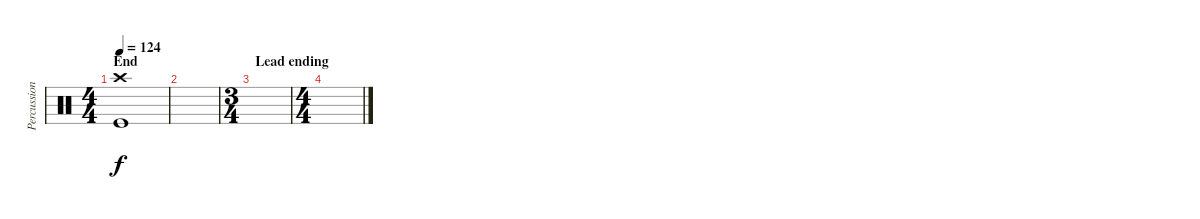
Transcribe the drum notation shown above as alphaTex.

\track ("Percussion" "Percussion") {instrument percussion}
\staff {score}
\articulation defaults
\ts (4 4)
\section ("" "End")
\tempo 124
\clef neutral
\ks c
("Crash high (hit)" "Kick (hit)").1{dy f} |
|
\ts (3 4)
\section ("" "Lead ending")
|
\ts (4 4)
